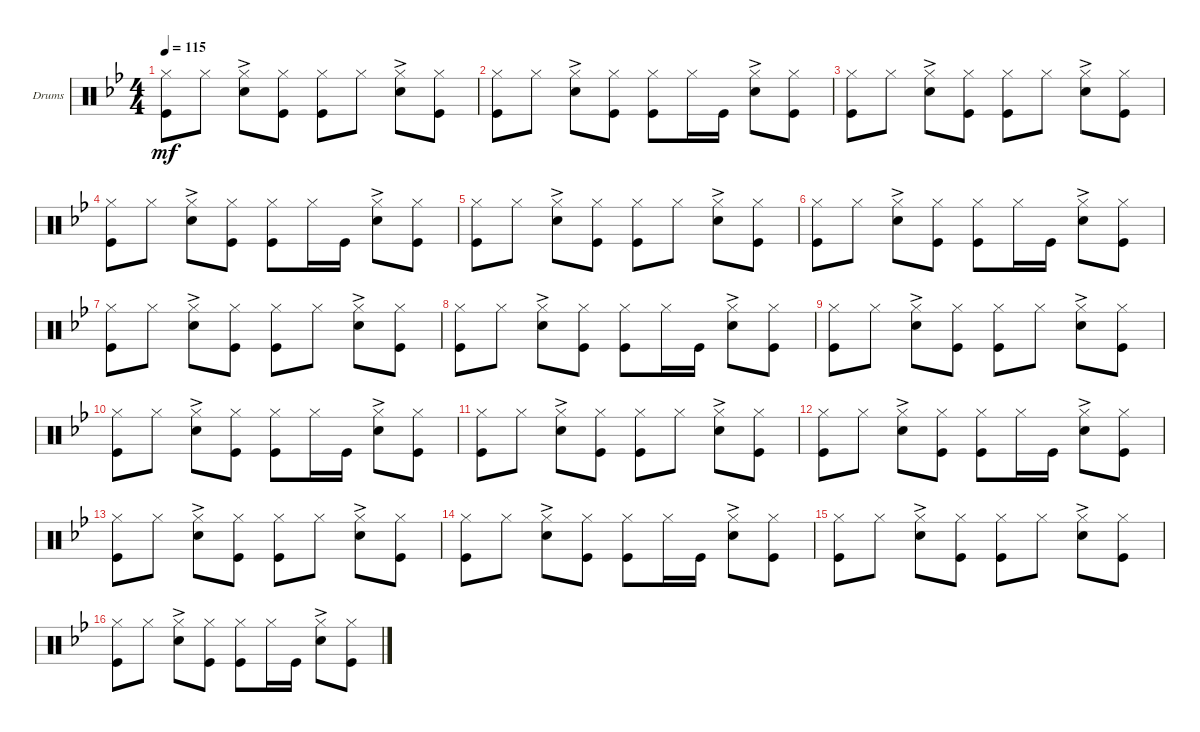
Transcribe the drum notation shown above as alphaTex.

\defaultSystemsLayout 4
\bracketExtendMode groupsimilarinstruments
\firstSystemTrackNameOrientation horizontal
\otherSystemsTrackNameOrientation horizontal
\track ("Batera" "Drums") {instrument percussion}
\staff {score}
\articulation defaults
\ts (4 4)
\tempo 115
\clef neutral
\ks gminor
("Kick (hit)" "Hi-Hat (closed)").8{dy mf} "Hi-Hat (closed)".8 ("Snare (hit) 2"{ac} "Hi-Hat (closed)").8 ("Kick (hit)" "Hi-Hat (closed)").8 ("Hi-Hat (closed)" "Kick (hit)").8 "Hi-Hat (closed)".8 ("Hi-Hat (closed)" "Snare (hit) 2"{ac}).8 ("Hi-Hat (closed)" "Kick (hit)").8 |
("Hi-Hat (closed)" "Kick (hit)").8 "Hi-Hat (closed)".8 ("Hi-Hat (closed)" "Snare (hit) 2"{ac}).8 ("Hi-Hat (closed)" "Kick (hit)").8 ("Hi-Hat (closed)" "Kick (hit)").8 "Hi-Hat (closed)".16 "Kick (hit)".16 ("Hi-Hat (closed)" "Snare (hit) 2"{ac}).8 ("Hi-Hat (closed)" "Kick (hit)").8 |
("Kick (hit)" "Hi-Hat (closed)").8 "Hi-Hat (closed)".8 ("Snare (hit) 2"{ac} "Hi-Hat (closed)").8 ("Kick (hit)" "Hi-Hat (closed)").8 ("Hi-Hat (closed)" "Kick (hit)").8 "Hi-Hat (closed)".8 ("Hi-Hat (closed)" "Snare (hit) 2"{ac}).8 ("Hi-Hat (closed)" "Kick (hit)").8 |
("Hi-Hat (closed)" "Kick (hit)").8 "Hi-Hat (closed)".8 ("Hi-Hat (closed)" "Snare (hit) 2"{ac}).8 ("Hi-Hat (closed)" "Kick (hit)").8 ("Hi-Hat (closed)" "Kick (hit)").8 "Hi-Hat (closed)".16 "Kick (hit)".16 ("Hi-Hat (closed)" "Snare (hit) 2"{ac}).8 ("Hi-Hat (closed)" "Kick (hit)").8 |
("Kick (hit)" "Hi-Hat (closed)").8 "Hi-Hat (closed)".8 ("Snare (hit) 2"{ac} "Hi-Hat (closed)").8 ("Kick (hit)" "Hi-Hat (closed)").8 ("Hi-Hat (closed)" "Kick (hit)").8 "Hi-Hat (closed)".8 ("Hi-Hat (closed)" "Snare (hit) 2"{ac}).8 ("Hi-Hat (closed)" "Kick (hit)").8 |
("Hi-Hat (closed)" "Kick (hit)").8 "Hi-Hat (closed)".8 ("Hi-Hat (closed)" "Snare (hit) 2"{ac}).8 ("Hi-Hat (closed)" "Kick (hit)").8 ("Hi-Hat (closed)" "Kick (hit)").8 "Hi-Hat (closed)".16 "Kick (hit)".16 ("Hi-Hat (closed)" "Snare (hit) 2"{ac}).8 ("Hi-Hat (closed)" "Kick (hit)").8 |
("Kick (hit)" "Hi-Hat (closed)").8 "Hi-Hat (closed)".8 ("Snare (hit) 2"{ac} "Hi-Hat (closed)").8 ("Kick (hit)" "Hi-Hat (closed)").8 ("Hi-Hat (closed)" "Kick (hit)").8 "Hi-Hat (closed)".8 ("Hi-Hat (closed)" "Snare (hit) 2"{ac}).8 ("Hi-Hat (closed)" "Kick (hit)").8 |
("Hi-Hat (closed)" "Kick (hit)").8 "Hi-Hat (closed)".8 ("Hi-Hat (closed)" "Snare (hit) 2"{ac}).8 ("Hi-Hat (closed)" "Kick (hit)").8 ("Hi-Hat (closed)" "Kick (hit)").8 "Hi-Hat (closed)".16 "Kick (hit)".16 ("Hi-Hat (closed)" "Snare (hit) 2"{ac}).8 ("Hi-Hat (closed)" "Kick (hit)").8 |
("Kick (hit)" "Hi-Hat (closed)").8 "Hi-Hat (closed)".8 ("Snare (hit) 2"{ac} "Hi-Hat (closed)").8 ("Kick (hit)" "Hi-Hat (closed)").8 ("Hi-Hat (closed)" "Kick (hit)").8 "Hi-Hat (closed)".8 ("Hi-Hat (closed)" "Snare (hit) 2"{ac}).8 ("Hi-Hat (closed)" "Kick (hit)").8 |
("Hi-Hat (closed)" "Kick (hit)").8 "Hi-Hat (closed)".8 ("Hi-Hat (closed)" "Snare (hit) 2"{ac}).8 ("Hi-Hat (closed)" "Kick (hit)").8 ("Hi-Hat (closed)" "Kick (hit)").8 "Hi-Hat (closed)".16 "Kick (hit)".16 ("Hi-Hat (closed)" "Snare (hit) 2"{ac}).8 ("Hi-Hat (closed)" "Kick (hit)").8 |
("Kick (hit)" "Hi-Hat (closed)").8 "Hi-Hat (closed)".8 ("Snare (hit) 2"{ac} "Hi-Hat (closed)").8 ("Kick (hit)" "Hi-Hat (closed)").8 ("Hi-Hat (closed)" "Kick (hit)").8 "Hi-Hat (closed)".8 ("Hi-Hat (closed)" "Snare (hit) 2"{ac}).8 ("Hi-Hat (closed)" "Kick (hit)").8 |
("Hi-Hat (closed)" "Kick (hit)").8 "Hi-Hat (closed)".8 ("Hi-Hat (closed)" "Snare (hit) 2"{ac}).8 ("Hi-Hat (closed)" "Kick (hit)").8 ("Hi-Hat (closed)" "Kick (hit)").8 "Hi-Hat (closed)".16 "Kick (hit)".16 ("Hi-Hat (closed)" "Snare (hit) 2"{ac}).8 ("Hi-Hat (closed)" "Kick (hit)").8 |
("Kick (hit)" "Hi-Hat (closed)").8 "Hi-Hat (closed)".8 ("Snare (hit) 2"{ac} "Hi-Hat (closed)").8 ("Kick (hit)" "Hi-Hat (closed)").8 ("Hi-Hat (closed)" "Kick (hit)").8 "Hi-Hat (closed)".8 ("Hi-Hat (closed)" "Snare (hit) 2"{ac}).8 ("Hi-Hat (closed)" "Kick (hit)").8 |
("Hi-Hat (closed)" "Kick (hit)").8 "Hi-Hat (closed)".8 ("Hi-Hat (closed)" "Snare (hit) 2"{ac}).8 ("Hi-Hat (closed)" "Kick (hit)").8 ("Hi-Hat (closed)" "Kick (hit)").8 "Hi-Hat (closed)".16 "Kick (hit)".16 ("Hi-Hat (closed)" "Snare (hit) 2"{ac}).8 ("Hi-Hat (closed)" "Kick (hit)").8 |
("Kick (hit)" "Hi-Hat (closed)").8 "Hi-Hat (closed)".8 ("Snare (hit) 2"{ac} "Hi-Hat (closed)").8 ("Kick (hit)" "Hi-Hat (closed)").8 ("Hi-Hat (closed)" "Kick (hit)").8 "Hi-Hat (closed)".8 ("Hi-Hat (closed)" "Snare (hit) 2"{ac}).8 ("Hi-Hat (closed)" "Kick (hit)").8 |
("Hi-Hat (closed)" "Kick (hit)").8 "Hi-Hat (closed)".8 ("Hi-Hat (closed)" "Snare (hit) 2"{ac}).8 ("Hi-Hat (closed)" "Kick (hit)").8 ("Hi-Hat (closed)" "Kick (hit)").8 "Hi-Hat (closed)".16 "Kick (hit)".16 ("Hi-Hat (closed)" "Snare (hit) 2"{ac}).8 ("Hi-Hat (closed)" "Kick (hit)").8
